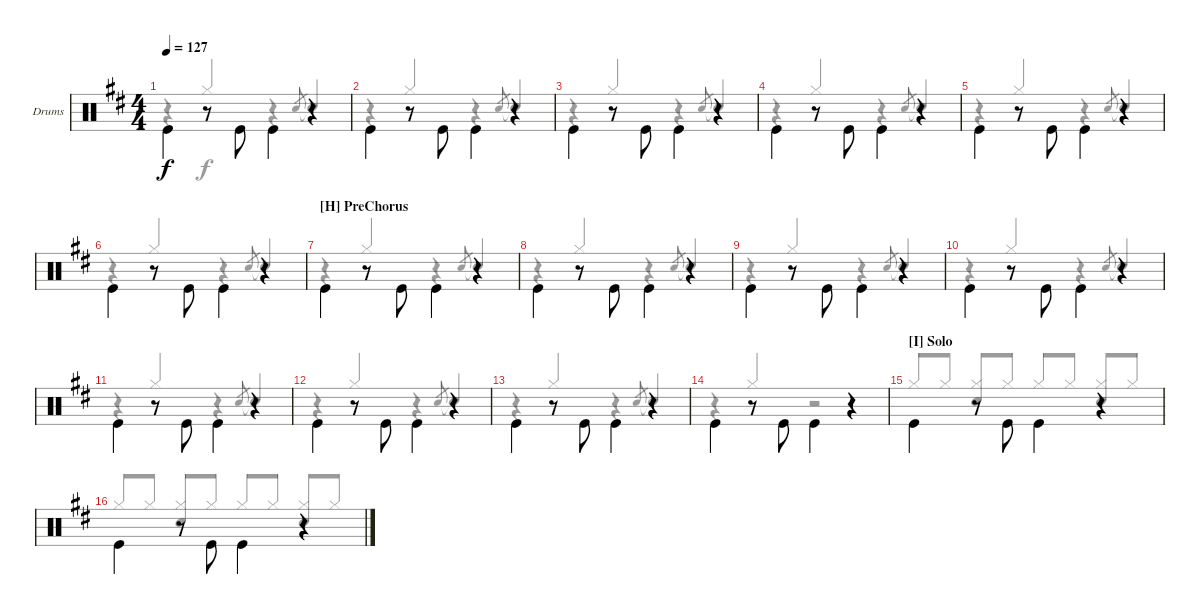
\bracketExtendMode groupsimilarinstruments
\firstSystemTrackNameOrientation horizontal
\otherSystemsTrackNameOrientation horizontal
\track ("Drum" "Drums") {instrument percussion}
\staff {score}
\articulation defaults
\voice
\ts (4 4)
\tempo 127
\clef neutral
\scale
0.5
\ks d "Kick (hit)".4{dy f beam invert}
r.8 "Kick (hit)".8{beam invert} "Kick (hit)".4{beam invert} r.4 |
\scale
0.5 "Kick (hit)".4{beam invert} r.8 "Kick (hit)".8{beam invert} "Kick (hit)".4{beam invert} r.4 |
\scale
0.5 "Kick (hit)".4{beam invert} r.8 "Kick (hit)".8{beam invert} "Kick (hit)".4{beam invert} r.4 |
\scale
0.5 "Kick (hit)".4{beam invert} r.8 "Kick (hit)".8{beam invert} "Kick (hit)".4{beam invert} r.4 |
\scale
0.5 "Kick (hit)".4{beam invert} r.8 "Kick (hit)".8{beam invert} "Kick (hit)".4{beam invert} r.4 |
\scale
0.5 "Kick (hit)".4{beam invert} r.8 "Kick (hit)".8{beam invert} "Kick (hit)".4{beam invert} r.4 |
\section ("H" "PreChorus")
\scale
0.5 "Kick (hit)".4{beam invert} r.8 "Kick (hit)".8{beam invert} "Kick (hit)".4{beam invert} r.4 |
\scale
0.5 "Kick (hit)".4{beam invert} r.8 "Kick (hit)".8{beam invert} "Kick (hit)".4{beam invert} r.4 |
\scale
0.5 "Kick (hit)".4{beam invert} r.8 "Kick (hit)".8{beam invert} "Kick (hit)".4{beam invert} r.4 |
\scale
0.5 "Kick (hit)".4{beam invert} r.8 "Kick (hit)".8{beam invert} "Kick (hit)".4{beam invert} r.4 |
\scale
0.5 "Kick (hit)".4{beam invert} r.8 "Kick (hit)".8{beam invert} "Kick (hit)".4{beam invert} r.4 |
\scale
0.5 "Kick (hit)".4{beam invert} r.8 "Kick (hit)".8{beam invert} "Kick (hit)".4{beam invert} r.4 |
\scale
0.5 "Kick (hit)".4{beam invert} r.8 "Kick (hit)".8{beam invert} "Kick (hit)".4{beam invert} r.4 |
\scale
0.5 "Kick (hit)".4{beam invert} r.8 "Kick (hit)".8{beam invert} "Kick (hit)".4{beam invert} r.4 |
\section ("I" "Solo")
\scale
0.5 "Kick (hit)".4{beam invert} r.8 "Kick (hit)".8{beam invert} "Kick (hit)".4{beam invert} r.4 |
\scale
0.5 "Kick (hit)".4{beam invert} r.8 "Kick (hit)".8{beam invert} "Kick (hit)".4{beam invert} r.4
\voice
\clef neutral
\ottava regular
\simile none
\scale
0.5
\ks d
r.4{dy f} "Hi-Hat (closed)".4{beam invert} r.4 "Snare (hit) 2".8{gr beam invert} "Snare (hit) 2"{t}.4{beam invert} |
\scale
0.5 r.4 "Hi-Hat (closed)".4{beam invert} r.4 "Snare (hit) 2".8{gr beam invert} "Snare (hit) 2"{t}.4{beam invert} |
\scale
0.5 r.4 "Hi-Hat (closed)".4{beam invert} r.4 "Snare (hit) 2".8{gr beam invert} "Snare (hit) 2"{t}.4{beam invert} |
\scale
0.5 r.4 "Hi-Hat (closed)".4{beam invert} r.4 "Snare (hit) 2".8{gr beam invert} "Snare (hit) 2"{t}.4{beam invert} |
\scale
0.5 r.4 "Hi-Hat (closed)".4{beam invert} r.4 "Snare (hit) 2".8{gr beam invert} "Snare (hit) 2"{t}.4{beam invert} |
\scale
0.5 r.4 "Hi-Hat (closed)".4{beam invert} r.4 "Snare (hit) 2".8{gr beam invert} "Snare (hit) 2"{t}.4{beam invert} |
\scale
0.5 r.4 "Hi-Hat (closed)".4{beam invert} r.4 "Snare (hit) 2".8{gr beam invert} "Snare (hit) 2"{t}.4{beam invert} |
\scale
0.5 r.4 "Hi-Hat (closed)".4{beam invert} r.4 "Snare (hit) 2".8{gr beam invert} "Snare (hit) 2"{t}.4{beam invert} |
\scale
0.5 r.4 "Hi-Hat (closed)".4{beam invert} r.4 "Snare (hit) 2".8{gr beam invert} "Snare (hit) 2"{t}.4{beam invert} |
\scale
0.5 r.4 "Hi-Hat (closed)".4{beam invert} r.4 "Snare (hit) 2".8{gr beam invert} "Snare (hit) 2"{t}.4{beam invert} |
\scale
0.5 r.4 "Hi-Hat (closed)".4{beam invert} r.4 "Snare (hit) 2".8{gr beam invert} "Snare (hit) 2"{t}.4{beam invert} |
\scale
0.5 r.4 "Hi-Hat (closed)".4{beam invert} r.4 "Snare (hit) 2".8{gr beam invert} "Snare (hit) 2"{t}.4{beam invert} |
\scale
0.5 r.4 "Hi-Hat (closed)".4{beam invert} r.4 "Snare (hit) 2".8{gr beam invert} "Snare (hit) 2"{t}.4{beam invert} |
\scale
0.5 r.4 "Hi-Hat (closed)".4{beam invert} r.2 |
\scale
0.5 "Hi-Hat (closed)".8{beam invert} "Hi-Hat (closed)".8 ("Hi-Hat (closed)" "Snare (hit) 2").8{beam invert} "Hi-Hat (closed)".8 "Hi-Hat (closed)".8{beam invert} "Hi-Hat (closed)".8 ("Hi-Hat (closed)" "Snare (hit) 2").8{beam invert} "Hi-Hat (closed)".8 |
\scale
0.5 "Hi-Hat (closed)".8{beam invert} "Hi-Hat (closed)".8 ("Hi-Hat (closed)" "Snare (hit) 2").8{beam invert} "Hi-Hat (closed)".8 "Hi-Hat (closed)".8{beam invert} "Hi-Hat (closed)".8 ("Hi-Hat (closed)" "Snare (hit) 2").8{beam invert} "Hi-Hat (closed)".8
